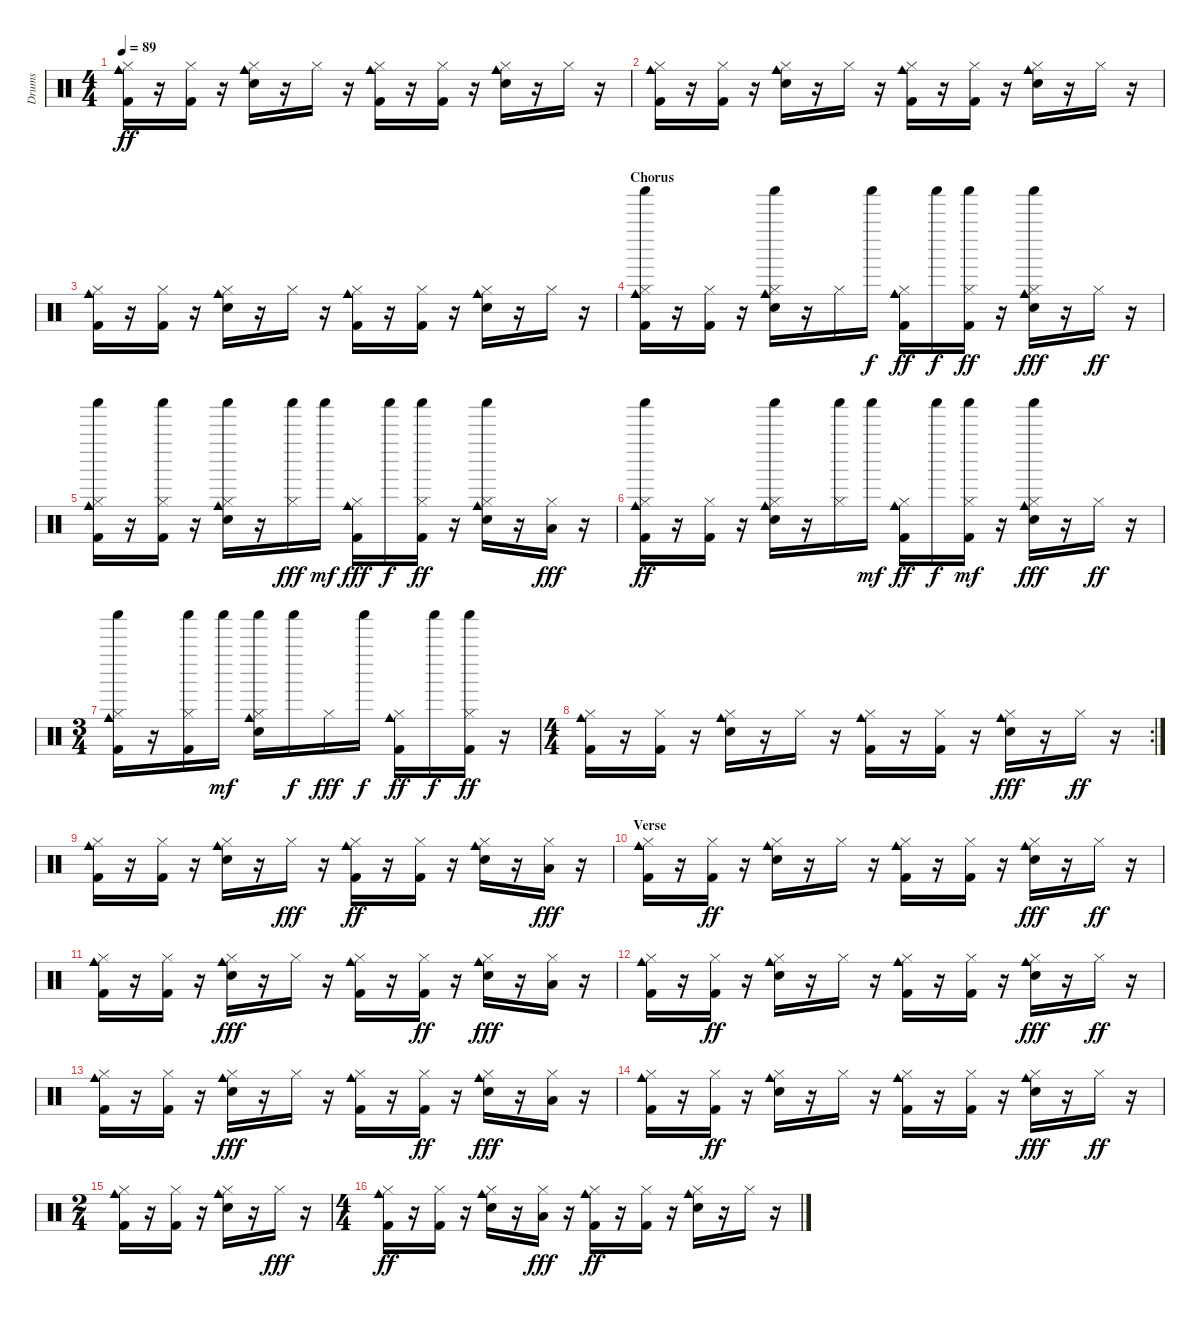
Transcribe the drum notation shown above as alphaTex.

\track ("Drums" "Drums") {instrument percussion}
\staff {score}
\articulation defaults
\ts (4 4)
\tempo 89
\clef neutral
\ks c
("Hi-Hat (closed)" "Cowbell medium (hit)" "Kick (hit) 2").16{dy ff} r.16 ("Kick (hit) 2" "Hi-Hat (closed)").16 r.16 ("Snare (hit) 2" "Hi-Hat (closed)" "Cowbell medium (hit)").16 r.16 "Hi-Hat (closed)".16 r.16 ("Hi-Hat (closed)" "Kick (hit) 2" "Cowbell medium (hit)").16 r.16 ("Kick (hit) 2" "Hi-Hat (closed)").16 r.16 ("Snare (hit) 2" "Hi-Hat (closed)" "Cowbell medium (hit)").16 r.16 "Hi-Hat (closed)".16 r.16 |
("Hi-Hat (closed)" "Cowbell medium (hit)" "Kick (hit) 2").16 r.16 ("Kick (hit) 2" "Hi-Hat (closed)").16 r.16 ("Snare (hit) 2" "Hi-Hat (closed)" "Cowbell medium (hit)").16 r.16 "Hi-Hat (closed)".16 r.16 ("Hi-Hat (closed)" "Kick (hit) 2" "Cowbell medium (hit)").16 r.16 ("Kick (hit) 2" "Hi-Hat (closed)").16 r.16 ("Snare (hit) 2" "Hi-Hat (closed)" "Cowbell medium (hit)").16 r.16 "Hi-Hat (closed)".16 r.16 |
("Hi-Hat (closed)" "Cowbell medium (hit)" "Kick (hit) 2").16 r.16 ("Kick (hit) 2" "Hi-Hat (closed)").16 r.16 ("Snare (hit) 2" "Hi-Hat (closed)" "Cowbell medium (hit)").16 r.16 "Hi-Hat (closed)".16 r.16 ("Hi-Hat (closed)" "Kick (hit) 2" "Cowbell medium (hit)").16 r.16 ("Kick (hit) 2" "Hi-Hat (closed)").16 r.16 ("Snare (hit) 2" "Hi-Hat (closed)" "Cowbell medium (hit)").16 r.16 "Hi-Hat (closed)".16 r.16 |
\section ("" "Chorus")
("Cowbell medium (hit)" "Hi-Hat (closed)" "Kick (hit) 2" "Shaker (hit)").16 r.16 ("Hi-Hat (closed)" "Kick (hit) 2").16 r.16 ("Cowbell medium (hit)" "Hi-Hat (closed)" "Shaker (hit)" "Snare (hit) 2").16 r.16 "Hi-Hat (closed)".16 "Shaker (hit)".16{dy f} ("Kick (hit) 2" "Hi-Hat (closed)" "Cowbell medium (hit)").16{dy ff} "Shaker (hit)".16{dy f} ("Hi-Hat (closed)" "Shaker (hit)" "Kick (hit) 2").16{dy ff} r.16 ("Cowbell medium (hit)" "Shaker (hit)" "Hi-Hat (closed)" "Snare (hit) 2").16{dy fff} r.16 "Hi-Hat (closed)".16{dy ff} r.16 |
("Cowbell medium (hit)" "Kick (hit) 2" "Hi-Hat (closed)" "Shaker (hit)").16 r.16 ("Kick (hit) 2" "Shaker (hit)" "Hi-Hat (closed)").16 r.16 ("Cowbell medium (hit)" "Snare (hit) 2" "Shaker (hit)" "Hi-Hat (closed)").16 r.16 ("Shaker (hit)" "Hi-Hat (closed)").16{dy fff} "Shaker (hit)".16{dy mf} ("Cowbell medium (hit)" "Kick (hit) 2" "Hi-Hat (closed)").16{dy fff} "Shaker (hit)".16{dy f} ("Kick (hit) 2" "Shaker (hit)" "Hi-Hat (closed)").16{dy ff} r.16 ("Hi-Hat (closed)" "Snare (hit) 2" "Cowbell medium (hit)" "Shaker (hit)").16 r.16 ("Low Floor Tom (hit)" "Hi-Hat (closed)").16{dy fff} r.16 |
("Shaker (hit)" "Hi-Hat (closed)" "Kick (hit) 2" "Cowbell medium (hit)").16{dy ff} r.16 ("Kick (hit) 2" "Hi-Hat (closed)").16 r.16 ("Cowbell medium (hit)" "Snare (hit) 2" "Shaker (hit)" "Hi-Hat (closed)").16 r.16 ("Shaker (hit)" "Hi-Hat (closed)").16 "Shaker (hit)".16{dy mf} ("Cowbell medium (hit)" "Kick (hit) 2" "Hi-Hat (closed)").16{dy ff} "Shaker (hit)".16{dy f} ("Hi-Hat (closed)" "Kick (hit) 2" "Shaker (hit)").16{dy mf} r.16 ("Cowbell medium (hit)" "Hi-Hat (closed)" "Snare (hit) 2" "Shaker (hit)").16{dy fff} r.16 "Hi-Hat (closed)".16{dy ff} r.16 |
\ts (3 4)
("Shaker (hit)" "Hi-Hat (closed)" "Cowbell medium (hit)" "Kick (hit) 2").16 r.16 ("Shaker (hit)" "Hi-Hat (closed)" "Kick (hit) 2").16 "Shaker (hit)".16{dy mf} ("Hi-Hat (closed)" "Snare (hit) 2" "Shaker (hit)" "Cowbell medium (hit)").16 "Shaker (hit)".16{dy f} "Hi-Hat (closed)".16{dy fff} "Shaker (hit)".16{dy f} ("Hi-Hat (closed)" "Kick (hit) 2" "Cowbell medium (hit)").16{dy ff} "Shaker (hit)".16{dy f} ("Hi-Hat (closed)" "Shaker (hit)" "Kick (hit) 2").16{dy ff} r.16 |
\rc 2
\ts (4 4)
("Cowbell medium (hit)" "Hi-Hat (closed)" "Kick (hit) 2").16 r.16 ("Kick (hit) 2" "Hi-Hat (closed)").16 r.16 ("Cowbell medium (hit)" "Hi-Hat (closed)" "Snare (hit) 2").16 r.16 "Hi-Hat (closed)".16 r.16 ("Hi-Hat (closed)" "Kick (hit) 2" "Cowbell medium (hit)").16 r.16 ("Hi-Hat (closed)" "Kick (hit) 2").16 r.16 ("Hi-Hat (closed)" "Snare (hit) 2" "Cowbell medium (hit)").16{dy fff} r.16 "Hi-Hat (closed)".16{dy ff} r.16 |
("Kick (hit) 2" "Hi-Hat (closed)" "Cowbell medium (hit)").16 r.16 ("Hi-Hat (closed)" "Kick (hit) 2").16 r.16 ("Snare (hit) 2" "Hi-Hat (closed)" "Cowbell medium (hit)").16 r.16 "Hi-Hat (closed)".16{dy fff} r.16 ("Cowbell medium (hit)" "Hi-Hat (closed)" "Kick (hit) 2").16{dy ff} r.16 ("Hi-Hat (closed)" "Kick (hit) 2").16 r.16 ("Cowbell medium (hit)" "Hi-Hat (closed)" "Snare (hit) 2").16 r.16 ("Hi-Hat (closed)" "Low Floor Tom (hit)").16{dy fff} r.16 |
\section ("" "Verse")
("Cowbell medium (hit)" "Kick (hit) 2" "Hi-Hat (closed)").16 r.16 ("Kick (hit) 2" "Hi-Hat (closed)").16{dy ff} r.16 ("Snare (hit) 2" "Cowbell medium (hit)" "Hi-Hat (closed)").16 r.16 "Hi-Hat (closed)".16 r.16 ("Cowbell medium (hit)" "Hi-Hat (closed)" "Kick (hit) 2").16 r.16 ("Hi-Hat (closed)" "Kick (hit) 2").16 r.16 ("Hi-Hat (closed)" "Snare (hit) 2" "Cowbell medium (hit)").16{dy fff} r.16 "Hi-Hat (closed)".16{dy ff} r.16 |
("Cowbell medium (hit)" "Hi-Hat (closed)" "Kick (hit) 2").16 r.16 ("Kick (hit) 2" "Hi-Hat (closed)").16 r.16 ("Cowbell medium (hit)" "Hi-Hat (closed)" "Snare (hit) 2").16{dy fff} r.16 "Hi-Hat (closed)".16 r.16 ("Kick (hit) 2" "Cowbell medium (hit)" "Hi-Hat (closed)").16 r.16 ("Kick (hit) 2" "Hi-Hat (closed)").16{dy ff} r.16 ("Cowbell medium (hit)" "Snare (hit) 2" "Hi-Hat (closed)").16{dy fff} r.16 ("Low Floor Tom (hit)" "Hi-Hat (closed)").16 r.16 |
("Cowbell medium (hit)" "Kick (hit) 2" "Hi-Hat (closed)").16 r.16 ("Kick (hit) 2" "Hi-Hat (closed)").16{dy ff} r.16 ("Cowbell medium (hit)" "Snare (hit) 2" "Hi-Hat (closed)").16 r.16 "Hi-Hat (closed)".16 r.16 ("Cowbell medium (hit)" "Hi-Hat (closed)" "Kick (hit) 2").16 r.16 ("Hi-Hat (closed)" "Kick (hit) 2").16 r.16 ("Hi-Hat (closed)" "Snare (hit) 2" "Cowbell medium (hit)").16{dy fff} r.16 "Hi-Hat (closed)".16{dy ff} r.16 |
("Cowbell medium (hit)" "Hi-Hat (closed)" "Kick (hit) 2").16 r.16 ("Kick (hit) 2" "Hi-Hat (closed)").16 r.16 ("Cowbell medium (hit)" "Hi-Hat (closed)" "Snare (hit) 2").16{dy fff} r.16 "Hi-Hat (closed)".16 r.16 ("Kick (hit) 2" "Cowbell medium (hit)" "Hi-Hat (closed)").16 r.16 ("Kick (hit) 2" "Hi-Hat (closed)").16{dy ff} r.16 ("Cowbell medium (hit)" "Snare (hit) 2" "Hi-Hat (closed)").16{dy fff} r.16 ("Low Floor Tom (hit)" "Hi-Hat (closed)").16 r.16 |
("Cowbell medium (hit)" "Kick (hit) 2" "Hi-Hat (closed)").16 r.16 ("Hi-Hat (closed)" "Kick (hit) 2").16{dy ff} r.16 ("Snare (hit) 2" "Cowbell medium (hit)" "Hi-Hat (closed)").16 r.16 "Hi-Hat (closed)".16 r.16 ("Hi-Hat (closed)" "Kick (hit) 2" "Cowbell medium (hit)").16 r.16 ("Kick (hit) 2" "Hi-Hat (closed)").16 r.16 ("Hi-Hat (closed)" "Snare (hit) 2" "Cowbell medium (hit)").16{dy fff} r.16 "Hi-Hat (closed)".16{dy ff} r.16 |
\ts (2 4)
("Hi-Hat (closed)" "Cowbell medium (hit)" "Kick (hit) 2").16 r.16 ("Kick (hit) 2" "Hi-Hat (closed)").16 r.16 ("Snare (hit) 2" "Hi-Hat (closed)" "Cowbell medium (hit)").16 r.16 "Hi-Hat (closed)".16{dy fff} r.16 |
\ts (4 4)
("Cowbell medium (hit)" "Hi-Hat (closed)" "Kick (hit) 2").16{dy ff} r.16 ("Hi-Hat (closed)" "Kick (hit) 2").16 r.16 ("Cowbell medium (hit)" "Hi-Hat (closed)" "Snare (hit) 2").16 r.16 ("Hi-Hat (closed)" "Low Floor Tom (hit)").16{dy fff} r.16 ("Hi-Hat (closed)" "Kick (hit) 2" "Cowbell medium (hit)").16{dy ff} r.16 ("Hi-Hat (closed)" "Kick (hit) 2").16 r.16 ("Hi-Hat (closed)" "Cowbell medium (hit)" "Snare (hit) 2").16 r.16 "Hi-Hat (closed)".16 r.16
